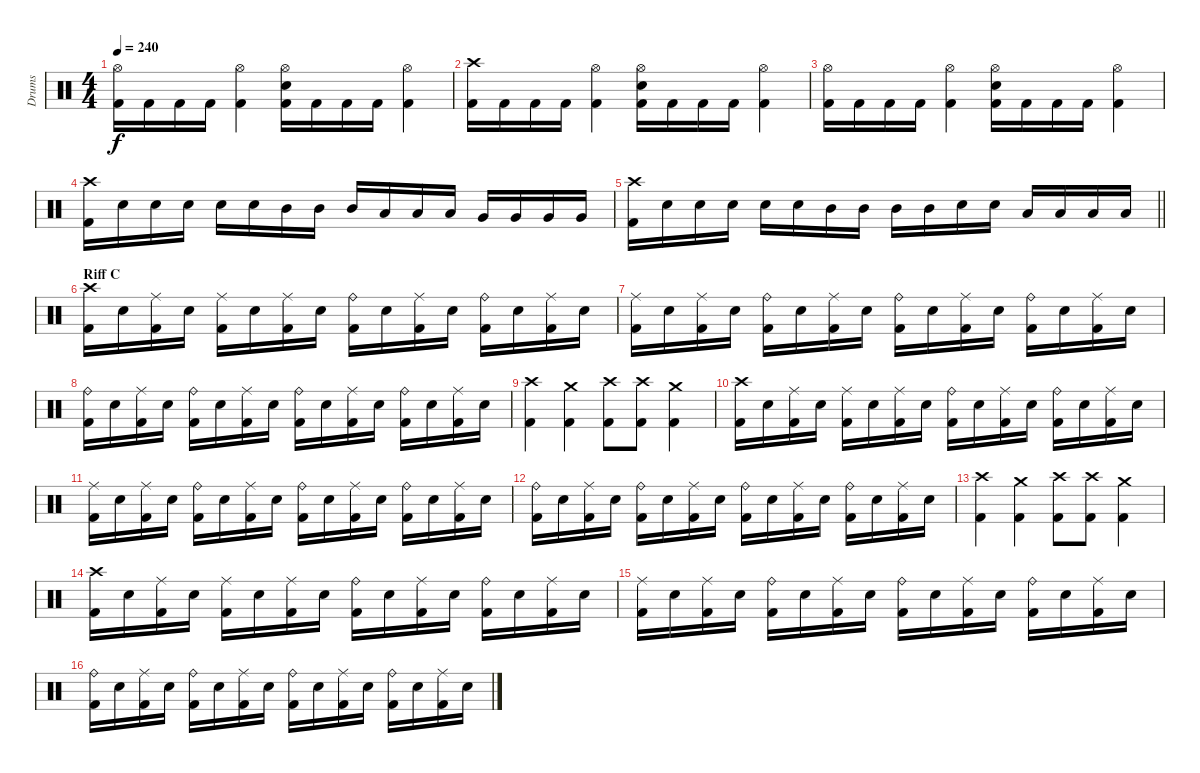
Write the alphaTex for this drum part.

\track ("Drums" "Drums") {instrument percussion}
\staff {score}
\articulation defaults
\ts (4 4)
\tempo 240
\clef neutral
\ks c
("Hi-Hat (open)" "Kick (hit) 2").16{dy f} "Kick (hit) 2".16 "Kick (hit) 2".16 "Kick (hit) 2".16 ("Hi-Hat (open)" "Kick (hit) 2").4 ("Hi-Hat (open)" "Electric Snare (hit)" "Kick (hit) 2").16 "Kick (hit) 2".16 "Kick (hit) 2".16 "Kick (hit) 2".16 ("Hi-Hat (open)" "Kick (hit) 2").4 |
("Crash high (hit)" "Kick (hit) 2").16 "Kick (hit) 2".16 "Kick (hit) 2".16 "Kick (hit) 2".16 ("Hi-Hat (open)" "Kick (hit) 2").4 ("Hi-Hat (open)" "Electric Snare (hit)" "Kick (hit) 2").16 "Kick (hit) 2".16 "Kick (hit) 2".16 "Kick (hit) 2".16 ("Hi-Hat (open)" "Kick (hit) 2").4 |
("Hi-Hat (open)" "Kick (hit) 2").16 "Kick (hit) 2".16 "Kick (hit) 2".16 "Kick (hit) 2".16 ("Hi-Hat (open)" "Kick (hit) 2").4 ("Hi-Hat (open)" "Electric Snare (hit)" "Kick (hit) 2").16 "Kick (hit) 2".16 "Kick (hit) 2".16 "Kick (hit) 2".16 ("Hi-Hat (open)" "Kick (hit) 2").4 |
("Crash high (hit)" "Kick (hit) 2").16 "Electric Snare (hit)".16 "Electric Snare (hit)".16 "Electric Snare (hit)".16 "Electric Snare (hit)".16 "Electric Snare (hit)".16 "Mid Tom (hit)".16 "Mid Tom (hit)".16 "Mid Tom (hit)".16 "Low Tom (hit)".16 "Low Tom (hit)".16 "Low Tom (hit)".16 "Very Low Tom (hit)".16 "Very Low Tom (hit)".16 "Very Low Tom (hit)".16 "Very Low Tom (hit)".16 |
\barLineRight lightlight
("Crash high (hit)" "Kick (hit) 2").16 "Electric Snare (hit)".16 "Electric Snare (hit)".16 "Electric Snare (hit)".16 "Electric Snare (hit)".16 "Electric Snare (hit)".16 "Mid Tom (hit)".16 "Mid Tom (hit)".16 "Mid Tom (hit)".16 "Mid Tom (hit)".16 "Electric Snare (hit)".16 "Electric Snare (hit)".16 "Low Tom (hit)".16 "Low Tom (hit)".16 "Low Tom (hit)".16 "Low Tom (hit)".16 |
\section ("" "Riff C")
("Crash high (hit)" "Kick (hit) 2").16 "Electric Snare (hit)".16 ("Ride (middle)" "Kick (hit) 2").16 "Electric Snare (hit)".16 ("Ride (middle)" "Kick (hit) 2").16 "Electric Snare (hit)".16 ("Ride (middle)" "Kick (hit) 2").16 "Electric Snare (hit)".16 ("Ride (bell)" "Kick (hit) 2").16 "Electric Snare (hit)".16 ("Ride (middle)" "Kick (hit) 2").16 "Electric Snare (hit)".16 ("Ride (bell)" "Kick (hit) 2").16 "Electric Snare (hit)".16 ("Ride (middle)" "Kick (hit) 2").16 "Electric Snare (hit)".16 |
("Ride (middle)" "Kick (hit) 2").16 "Electric Snare (hit)".16 ("Ride (middle)" "Kick (hit) 2").16 "Electric Snare (hit)".16 ("Ride (bell)" "Kick (hit) 2").16 "Electric Snare (hit)".16 ("Ride (middle)" "Kick (hit) 2").16 "Electric Snare (hit)".16 ("Ride (bell)" "Kick (hit) 2").16 "Electric Snare (hit)".16 ("Ride (middle)" "Kick (hit) 2").16 "Electric Snare (hit)".16 ("Ride (bell)" "Kick (hit) 2").16 "Electric Snare (hit)".16 ("Ride (middle)" "Kick (hit) 2").16 "Electric Snare (hit)".16 |
("Ride (bell)" "Kick (hit) 2").16 "Electric Snare (hit)".16 ("Ride (middle)" "Kick (hit) 2").16 "Electric Snare (hit)".16 ("Ride (bell)" "Kick (hit) 2").16 "Electric Snare (hit)".16 ("Ride (middle)" "Kick (hit) 2").16 "Electric Snare (hit)".16 ("Ride (bell)" "Kick (hit) 2").16 "Electric Snare (hit)".16 ("Ride (middle)" "Kick (hit) 2").16 "Electric Snare (hit)".16 ("Ride (bell)" "Kick (hit) 2").16 "Electric Snare (hit)".16 ("Ride (middle)" "Kick (hit) 2").16 "Electric Snare (hit)".16 |
("Crash high (hit)" "Kick (hit) 2").4 ("Crash medium (hit)" "Kick (hit) 2").4 ("Crash high (hit)" "Kick (hit) 2").8 ("Crash high (hit)" "Kick (hit) 2").8 ("Crash medium (hit)" "Kick (hit) 2").4 |
("Crash high (hit)" "Kick (hit) 2").16 "Electric Snare (hit)".16 ("Ride (middle)" "Kick (hit) 2").16 "Electric Snare (hit)".16 ("Ride (middle)" "Kick (hit) 2").16 "Electric Snare (hit)".16 ("Ride (middle)" "Kick (hit) 2").16 "Electric Snare (hit)".16 ("Ride (bell)" "Kick (hit) 2").16 "Electric Snare (hit)".16 ("Ride (middle)" "Kick (hit) 2").16 "Electric Snare (hit)".16 ("Ride (bell)" "Kick (hit) 2").16 "Electric Snare (hit)".16 ("Ride (middle)" "Kick (hit) 2").16 "Electric Snare (hit)".16 |
("Ride (middle)" "Kick (hit) 2").16 "Electric Snare (hit)".16 ("Ride (middle)" "Kick (hit) 2").16 "Electric Snare (hit)".16 ("Ride (bell)" "Kick (hit) 2").16 "Electric Snare (hit)".16 ("Ride (middle)" "Kick (hit) 2").16 "Electric Snare (hit)".16 ("Ride (bell)" "Kick (hit) 2").16 "Electric Snare (hit)".16 ("Ride (middle)" "Kick (hit) 2").16 "Electric Snare (hit)".16 ("Ride (bell)" "Kick (hit) 2").16 "Electric Snare (hit)".16 ("Ride (middle)" "Kick (hit) 2").16 "Electric Snare (hit)".16 |
("Ride (bell)" "Kick (hit) 2").16 "Electric Snare (hit)".16 ("Ride (middle)" "Kick (hit) 2").16 "Electric Snare (hit)".16 ("Ride (bell)" "Kick (hit) 2").16 "Electric Snare (hit)".16 ("Ride (middle)" "Kick (hit) 2").16 "Electric Snare (hit)".16 ("Ride (bell)" "Kick (hit) 2").16 "Electric Snare (hit)".16 ("Ride (middle)" "Kick (hit) 2").16 "Electric Snare (hit)".16 ("Ride (bell)" "Kick (hit) 2").16 "Electric Snare (hit)".16 ("Ride (middle)" "Kick (hit) 2").16 "Electric Snare (hit)".16 |
("Crash high (hit)" "Kick (hit) 2").4 ("Crash medium (hit)" "Kick (hit) 2").4 ("Crash high (hit)" "Kick (hit) 2").8 ("Crash high (hit)" "Kick (hit) 2").8 ("Crash medium (hit)" "Kick (hit) 2").4 |
("Crash high (hit)" "Kick (hit) 2").16 "Electric Snare (hit)".16 ("Ride (middle)" "Kick (hit) 2").16 "Electric Snare (hit)".16 ("Ride (middle)" "Kick (hit) 2").16 "Electric Snare (hit)".16 ("Ride (middle)" "Kick (hit) 2").16 "Electric Snare (hit)".16 ("Ride (bell)" "Kick (hit) 2").16 "Electric Snare (hit)".16 ("Ride (middle)" "Kick (hit) 2").16 "Electric Snare (hit)".16 ("Ride (bell)" "Kick (hit) 2").16 "Electric Snare (hit)".16 ("Ride (middle)" "Kick (hit) 2").16 "Electric Snare (hit)".16 |
("Ride (middle)" "Kick (hit) 2").16 "Electric Snare (hit)".16 ("Ride (middle)" "Kick (hit) 2").16 "Electric Snare (hit)".16 ("Ride (bell)" "Kick (hit) 2").16 "Electric Snare (hit)".16 ("Ride (middle)" "Kick (hit) 2").16 "Electric Snare (hit)".16 ("Ride (bell)" "Kick (hit) 2").16 "Electric Snare (hit)".16 ("Ride (middle)" "Kick (hit) 2").16 "Electric Snare (hit)".16 ("Ride (bell)" "Kick (hit) 2").16 "Electric Snare (hit)".16 ("Ride (middle)" "Kick (hit) 2").16 "Electric Snare (hit)".16 |
("Ride (bell)" "Kick (hit) 2").16 "Electric Snare (hit)".16 ("Ride (middle)" "Kick (hit) 2").16 "Electric Snare (hit)".16 ("Ride (bell)" "Kick (hit) 2").16 "Electric Snare (hit)".16 ("Ride (middle)" "Kick (hit) 2").16 "Electric Snare (hit)".16 ("Ride (bell)" "Kick (hit) 2").16 "Electric Snare (hit)".16 ("Ride (middle)" "Kick (hit) 2").16 "Electric Snare (hit)".16 ("Ride (bell)" "Kick (hit) 2").16 "Electric Snare (hit)".16 ("Ride (middle)" "Kick (hit) 2").16 "Electric Snare (hit)".16
